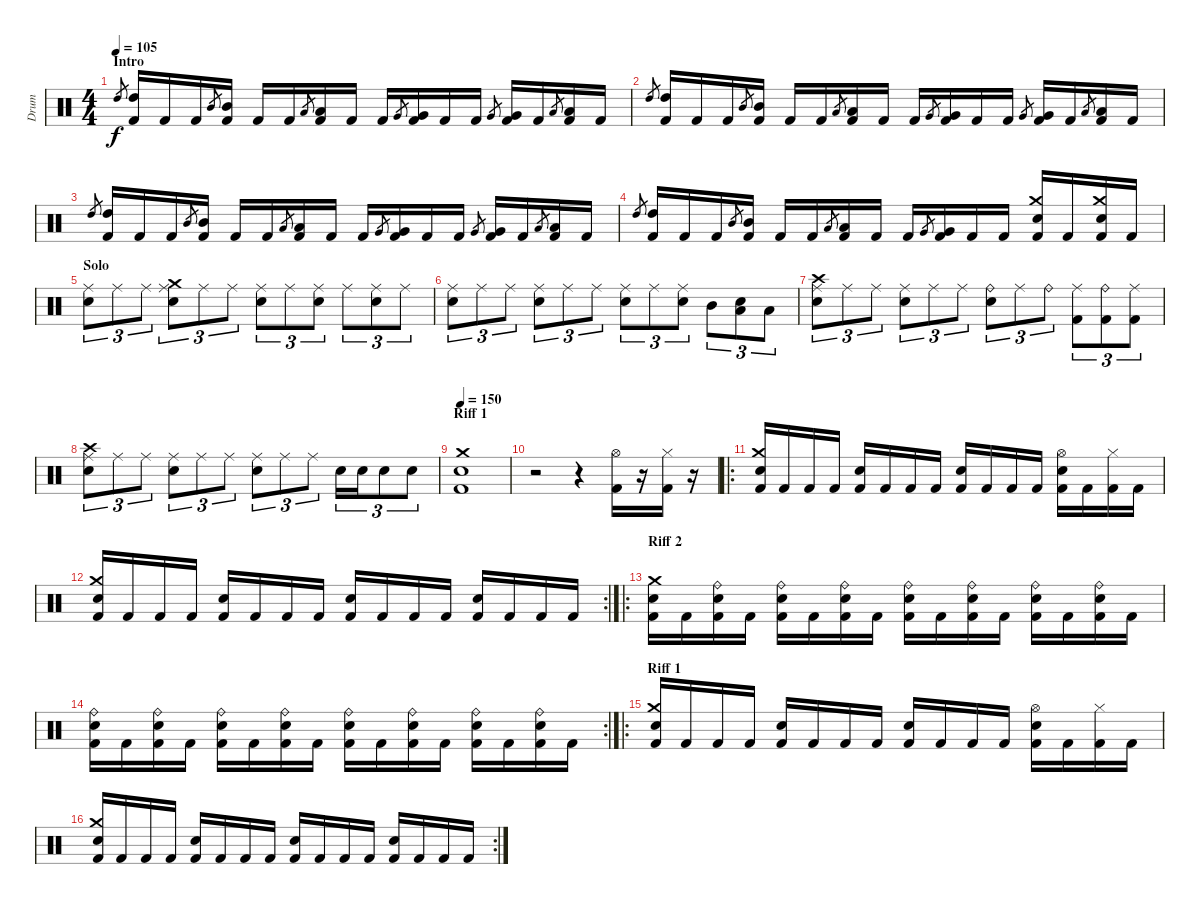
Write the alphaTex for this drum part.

\track ("Drum" "Drum") {instrument percussion}
\staff {score}
\articulation defaults
\ts (4 4)
\section ("" "Intro")
\tempo 105
\clef neutral
\ks c "High Tom (hit)".8{gr dy f}
("High Tom (hit)" "Kick (hit) 2").16 "Kick (hit) 2".16 "Kick (hit) 2".16 "Mid Tom (hit)".8{gr} ("Mid Tom (hit)" "Kick (hit) 2").16 "Kick (hit) 2".16 "Kick (hit) 2".16 "Low Tom (hit)".8{gr} ("Low Tom (hit)" "Kick (hit) 2").16 "Kick (hit) 2".16 "Kick (hit) 2".16 "Very Low Tom (hit)".8{gr} ("Very Low Tom (hit)" "Kick (hit) 2").16 "Kick (hit) 2".16 "Kick (hit) 2".16 "Very Low Tom (hit)".8{gr} ("Very Low Tom (hit)" "Kick (hit) 2").16 "Kick (hit) 2".16 "Low Floor Tom (hit)".8{gr} ("Low Floor Tom (hit)" "Kick (hit) 2").16 "Kick (hit) 2".16 |
"High Tom (hit)".8{gr} ("High Tom (hit)" "Kick (hit) 2").16 "Kick (hit) 2".16 "Kick (hit) 2".16 "Mid Tom (hit)".8{gr} ("Mid Tom (hit)" "Kick (hit) 2").16 "Kick (hit) 2".16 "Kick (hit) 2".16 "Low Tom (hit)".8{gr} ("Low Tom (hit)" "Kick (hit) 2").16 "Kick (hit) 2".16 "Kick (hit) 2".16 "Very Low Tom (hit)".8{gr} ("Very Low Tom (hit)" "Kick (hit) 2").16 "Kick (hit) 2".16 "Kick (hit) 2".16 "Very Low Tom (hit)".8{gr} ("Very Low Tom (hit)" "Kick (hit) 2").16 "Kick (hit) 2".16 "Low Floor Tom (hit)".8{gr} ("Low Floor Tom (hit)" "Kick (hit) 2").16 "Kick (hit) 2".16 |
"High Tom (hit)".8{gr} ("High Tom (hit)" "Kick (hit) 2").16 "Kick (hit) 2".16 "Kick (hit) 2".16 "Mid Tom (hit)".8{gr} ("Mid Tom (hit)" "Kick (hit) 2").16 "Kick (hit) 2".16 "Kick (hit) 2".16 "Low Tom (hit)".8{gr} ("Low Tom (hit)" "Kick (hit) 2").16 "Kick (hit) 2".16 "Kick (hit) 2".16 "Very Low Tom (hit)".8{gr} ("Very Low Tom (hit)" "Kick (hit) 2").16 "Kick (hit) 2".16 "Kick (hit) 2".16 "Very Low Tom (hit)".8{gr} ("Very Low Tom (hit)" "Kick (hit) 2").16 "Kick (hit) 2".16 "Low Floor Tom (hit)".8{gr} ("Low Floor Tom (hit)" "Kick (hit) 2").16 "Kick (hit) 2".16 |
"High Tom (hit)".8{gr} ("High Tom (hit)" "Kick (hit) 2").16 "Kick (hit) 2".16 "Kick (hit) 2".16 "Mid Tom (hit)".8{gr} ("Mid Tom (hit)" "Kick (hit) 2").16 "Kick (hit) 2".16 "Kick (hit) 2".16 "Low Tom (hit)".8{gr} ("Low Tom (hit)" "Kick (hit) 2").16 "Kick (hit) 2".16 "Kick (hit) 2".16 "Very Low Tom (hit)".8{gr} ("Very Low Tom (hit)" "Kick (hit) 2").16 "Kick (hit) 2".16 "Kick (hit) 2".16 ("Crash medium (hit)" "Electric Snare (hit)" "Kick (hit) 2").16 "Kick (hit) 2".16 ("Crash medium (hit)" "Electric Snare (hit)" "Kick (hit) 2").16 "Kick (hit) 2".16 |
\section ("" "Solo")
("Ride (middle)" "Electric Snare (hit)").8{tu (3 2)} "Ride (middle)".8{tu (3 2)} "Ride (middle)".8{tu (3 2)} ("Crash medium (hit)" "Ride (middle)" "Electric Snare (hit)").8{tu (3 2)} "Ride (middle)".8{tu (3 2)} "Ride (middle)".8{tu (3 2)} ("Ride (middle)" "Electric Snare (hit)").8{tu (3 2)} "Ride (middle)".8{tu (3 2)} ("Ride (middle)" "Electric Snare (hit)").8{tu (3 2)} "Ride (middle)".8{tu (3 2)} ("Ride (middle)" "Electric Snare (hit)").8{tu (3 2)} "Ride (middle)".8{tu (3 2)} |
("Ride (middle)" "Electric Snare (hit)").8{tu (3 2)} "Ride (middle)".8{tu (3 2)} "Ride (middle)".8{tu (3 2)} ("Ride (middle)" "Electric Snare (hit)").8{tu (3 2)} "Ride (middle)".8{tu (3 2)} "Ride (middle)".8{tu (3 2)} ("Ride (middle)" "Electric Snare (hit)").8{tu (3 2)} "Ride (middle)".8{tu (3 2)} ("Ride (middle)" "Electric Snare (hit)").8{tu (3 2)} "Mid Tom (hit)".8{tu (3 2)} ("Low Tom (hit)" "Electric Snare (hit)").8{tu (3 2)} "Low Floor Tom (hit)".8{tu (3 2)} |
("Crash high (hit)" "Ride (middle)" "Electric Snare (hit)").8{tu (3 2)} "Ride (middle)".8{tu (3 2)} "Ride (middle)".8{tu (3 2)} ("Ride (middle)" "Electric Snare (hit)").8{tu (3 2)} "Ride (middle)".8{tu (3 2)} "Ride (middle)".8{tu (3 2)} ("Ride (bell)" "Electric Snare (hit)").8{tu (3 2)} "Ride (middle)".8{tu (3 2)} "Ride (bell)".8{tu (3 2)} ("Ride (middle)" "Kick (hit) 2").8{tu (3 2)} ("Ride (bell)" "Kick (hit) 2").8{tu (3 2)} ("Ride (middle)" "Kick (hit) 2").8{tu (3 2)} |
("Crash high (hit)" "Ride (middle)" "Electric Snare (hit)").8{tu (3 2)} "Ride (middle)".8{tu (3 2)} "Ride (middle)".8{tu (3 2)} ("Ride (middle)" "Electric Snare (hit)").8{tu (3 2)} "Ride (middle)".8{tu (3 2)} "Ride (middle)".8{tu (3 2)} ("Ride (middle)" "Electric Snare (hit)").8{tu (3 2)} "Ride (middle)".8{tu (3 2)} "Ride (middle)".8{tu (3 2)} "Electric Snare (hit)".16{tu (3 2)} "Electric Snare (hit)".16{tu (3 2)} "Snare (hit) 2".8{tu (3 2)} "Snare (hit) 2".8{tu (3 2)} |
\section ("" "Riff 1")
\tempo 150
("Crash medium (hit)" "Electric Snare (hit)" "Kick (hit) 2").1 |
r.2 r.4 ("Hi-Hat (open)" "Kick (hit) 2").16 r.16 ("Hi-Hat (closed)" "Kick (hit) 2").16 r.16 |
\ro
("Crash medium (hit)" "Electric Snare (hit)" "Kick (hit) 2").16 "Kick (hit) 2".16 "Kick (hit) 2".16 "Kick (hit) 2".16 ("Electric Snare (hit)" "Kick (hit) 2").16 "Kick (hit) 2".16 "Kick (hit) 2".16 "Kick (hit) 2".16 ("Electric Snare (hit)" "Kick (hit) 2").16 "Kick (hit) 2".16 "Kick (hit) 2".16 "Kick (hit) 2".16 ("Hi-Hat (open)" "Electric Snare (hit)" "Kick (hit) 2").16 "Kick (hit) 2".16 ("Hi-Hat (closed)" "Kick (hit) 2").16 "Kick (hit) 2".16 |
\rc 2
("Crash medium (hit)" "Electric Snare (hit)" "Kick (hit) 2").16 "Kick (hit) 2".16 "Kick (hit) 2".16 "Kick (hit) 2".16 ("Electric Snare (hit)" "Kick (hit) 2").16 "Kick (hit) 2".16 "Kick (hit) 2".16 "Kick (hit) 2".16 ("Electric Snare (hit)" "Kick (hit) 2").16 "Kick (hit) 2".16 "Kick (hit) 2".16 "Kick (hit) 2".16 ("Electric Snare (hit)" "Kick (hit) 2").16 "Kick (hit) 2".16 "Kick (hit) 2".16 "Kick (hit) 2".16 |
\ro
\section ("" "Riff 2")
("Crash medium (hit)" "Electric Snare (hit)" "Kick (hit) 2").16 "Kick (hit) 2".16 ("Ride (bell)" "Electric Snare (hit)" "Kick (hit) 2").16 "Kick (hit) 2".16 ("Ride (bell)" "Electric Snare (hit)" "Kick (hit) 2").16 "Kick (hit) 2".16 ("Ride (bell)" "Electric Snare (hit)" "Kick (hit) 2").16 "Kick (hit) 2".16 ("Ride (bell)" "Electric Snare (hit)" "Kick (hit) 2").16 "Kick (hit) 2".16 ("Ride (bell)" "Electric Snare (hit)" "Kick (hit) 2").16 "Kick (hit) 2".16 ("Ride (bell)" "Electric Snare (hit)" "Kick (hit) 2").16 "Kick (hit) 2".16 ("Ride (bell)" "Electric Snare (hit)" "Kick (hit) 2").16 "Kick (hit) 2".16 |
\rc 2
("Ride (bell)" "Electric Snare (hit)" "Kick (hit) 2").16 "Kick (hit) 2".16 ("Ride (bell)" "Electric Snare (hit)" "Kick (hit) 2").16 "Kick (hit) 2".16 ("Ride (bell)" "Electric Snare (hit)" "Kick (hit) 2").16 "Kick (hit) 2".16 ("Ride (bell)" "Electric Snare (hit)" "Kick (hit) 2").16 "Kick (hit) 2".16 ("Ride (bell)" "Electric Snare (hit)" "Kick (hit) 2").16 "Kick (hit) 2".16 ("Ride (bell)" "Electric Snare (hit)" "Kick (hit) 2").16 "Kick (hit) 2".16 ("Ride (bell)" "Electric Snare (hit)" "Kick (hit) 2").16 "Kick (hit) 2".16 ("Ride (bell)" "Electric Snare (hit)" "Kick (hit) 2").16 "Kick (hit) 2".16 |
\ro
\section ("" "Riff 1")
("Crash medium (hit)" "Electric Snare (hit)" "Kick (hit) 2").16 "Kick (hit) 2".16 "Kick (hit) 2".16 "Kick (hit) 2".16 ("Electric Snare (hit)" "Kick (hit) 2").16 "Kick (hit) 2".16 "Kick (hit) 2".16 "Kick (hit) 2".16 ("Electric Snare (hit)" "Kick (hit) 2").16 "Kick (hit) 2".16 "Kick (hit) 2".16 "Kick (hit) 2".16 ("Hi-Hat (open)" "Electric Snare (hit)" "Kick (hit) 2").16 "Kick (hit) 2".16 ("Hi-Hat (closed)" "Kick (hit) 2").16 "Kick (hit) 2".16 |
\rc 2
("Crash medium (hit)" "Electric Snare (hit)" "Kick (hit) 2").16 "Kick (hit) 2".16 "Kick (hit) 2".16 "Kick (hit) 2".16 ("Electric Snare (hit)" "Kick (hit) 2").16 "Kick (hit) 2".16 "Kick (hit) 2".16 "Kick (hit) 2".16 ("Electric Snare (hit)" "Kick (hit) 2").16 "Kick (hit) 2".16 "Kick (hit) 2".16 "Kick (hit) 2".16 ("Electric Snare (hit)" "Kick (hit) 2").16 "Kick (hit) 2".16 "Kick (hit) 2".16 "Kick (hit) 2".16
